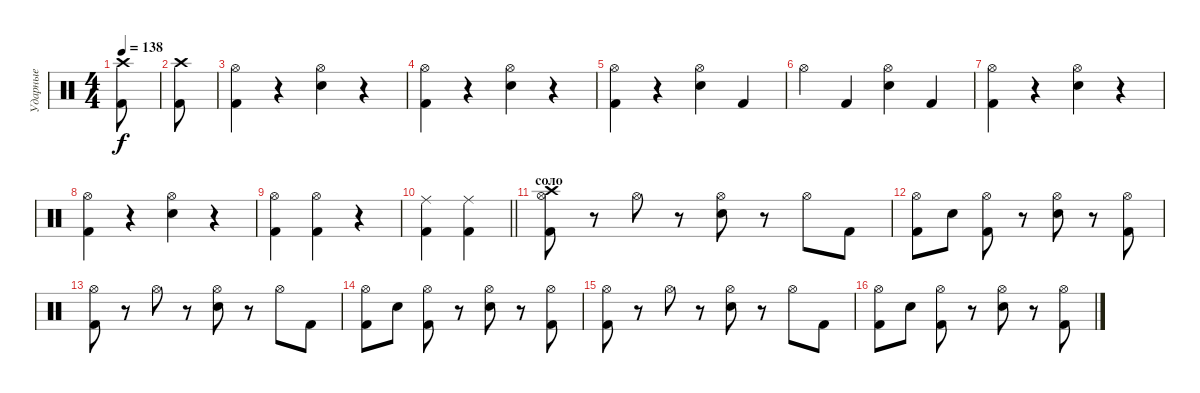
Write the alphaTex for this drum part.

\track ("Ударные" "Ударные") {instrument percussion}
\staff {score}
\articulation defaults
\ts (4 4)
\tempo 138
\clef neutral
\ks c
("Crash high (hit)" "Kick (hit) 2").8{dy f} |
("Crash high (hit)" "Kick (hit) 2").8 |
("Hi-Hat (open)" "Kick (hit) 2").4 r.4 ("Hi-Hat (open)" "Snare (hit) 2").4 r.4 |
("Hi-Hat (open)" "Kick (hit) 2").4 r.4 ("Hi-Hat (open)" "Snare (hit) 2").4 r.4 |
("Hi-Hat (open)" "Kick (hit) 2").4 r.4 ("Hi-Hat (open)" "Snare (hit) 2").4 "Kick (hit) 2".4 |
"Hi-Hat (open)".4 "Kick (hit) 2".4 ("Hi-Hat (open)" "Snare (hit) 2").4 "Kick (hit) 2".4 |
("Hi-Hat (open)" "Kick (hit) 2").4 r.4 ("Hi-Hat (open)" "Snare (hit) 2").4 r.4 |
("Hi-Hat (open)" "Kick (hit) 2").4 r.4 ("Hi-Hat (open)" "Snare (hit) 2").4 r.4 |
("Hi-Hat (open)" "Kick (hit) 2").4 ("Hi-Hat (open)" "Kick (hit) 2").4 r.4 |
\barLineRight lightlight
("Ride (middle)" "Kick (hit) 2").4 ("Ride (middle)" "Kick (hit) 2").4 |
\section ("" "соло")
("Hi-Hat (open)" "Kick (hit) 2" "Crash high (hit)").8 r.8 "Hi-Hat (open)".8 r.8 ("Hi-Hat (open)" "Snare (hit) 2").8 r.8 "Hi-Hat (open)".8 "Kick (hit) 2".8 |
("Hi-Hat (open)" "Kick (hit) 2").8 "Snare (hit) 2".8 ("Hi-Hat (open)" "Kick (hit) 2").8 r.8 ("Hi-Hat (open)" "Snare (hit) 2").8 r.8 ("Hi-Hat (open)" "Kick (hit) 2").8 |
("Hi-Hat (open)" "Kick (hit) 2").8 r.8 "Hi-Hat (open)".8 r.8 ("Hi-Hat (open)" "Snare (hit) 2").8 r.8 "Hi-Hat (open)".8 "Kick (hit) 2".8 |
("Hi-Hat (open)" "Kick (hit) 2").8 "Snare (hit) 2".8 ("Hi-Hat (open)" "Kick (hit) 2").8 r.8 ("Hi-Hat (open)" "Snare (hit) 2").8 r.8 ("Hi-Hat (open)" "Kick (hit) 2").8 |
("Hi-Hat (open)" "Kick (hit) 2").8 r.8 "Hi-Hat (open)".8 r.8 ("Hi-Hat (open)" "Snare (hit) 2").8 r.8 "Hi-Hat (open)".8 "Kick (hit) 2".8 |
("Hi-Hat (open)" "Kick (hit) 2").8 "Snare (hit) 2".8 ("Hi-Hat (open)" "Kick (hit) 2").8 r.8 ("Hi-Hat (open)" "Snare (hit) 2").8 r.8 ("Hi-Hat (open)" "Kick (hit) 2").8
